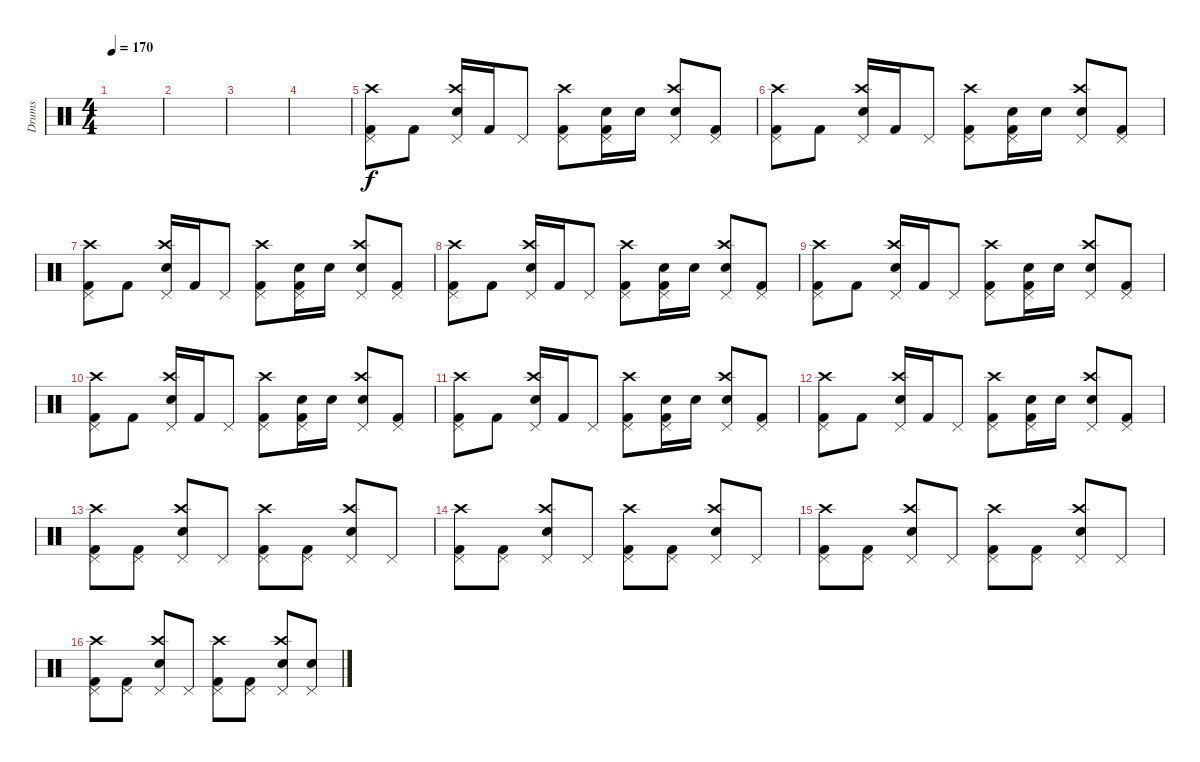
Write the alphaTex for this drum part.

\track ("Drums" "Drums") {instrument percussion}
\staff {score}
\articulation defaults
\ts (4 4)
\tempo 170
\clef neutral
\ks c
|
|
|
|
("Pedal Hi-Hat (hit)" "Kick (hit) 2" "Crash high (hit)").8 "Kick (hit) 2".8 ("Pedal Hi-Hat (hit)" "Electric Snare (hit)" "Crash high (hit)").16 "Kick (hit) 2".16 "Pedal Hi-Hat (hit)".8 ("Pedal Hi-Hat (hit)" "Kick (hit) 2" "Crash high (hit)").8 ("Pedal Hi-Hat (hit)" "Electric Snare (hit)" "Kick (hit) 2").16 "Electric Snare (hit)".16 ("Pedal Hi-Hat (hit)" "Electric Snare (hit)" "Crash high (hit)").8 ("Pedal Hi-Hat (hit)" "Kick (hit) 2").8 |
("Pedal Hi-Hat (hit)" "Kick (hit) 2" "Crash high (hit)").8 "Kick (hit) 2".8 ("Pedal Hi-Hat (hit)" "Electric Snare (hit)" "Crash high (hit)").16 "Kick (hit) 2".16 "Pedal Hi-Hat (hit)".8 ("Pedal Hi-Hat (hit)" "Kick (hit) 2" "Crash high (hit)").8 ("Pedal Hi-Hat (hit)" "Electric Snare (hit)" "Kick (hit) 2").16 "Electric Snare (hit)".16 ("Pedal Hi-Hat (hit)" "Electric Snare (hit)" "Crash high (hit)").8 ("Pedal Hi-Hat (hit)" "Kick (hit) 2").8 |
("Pedal Hi-Hat (hit)" "Kick (hit) 2" "Crash high (hit)").8 "Kick (hit) 2".8 ("Pedal Hi-Hat (hit)" "Electric Snare (hit)" "Crash high (hit)").16 "Kick (hit) 2".16 "Pedal Hi-Hat (hit)".8 ("Pedal Hi-Hat (hit)" "Kick (hit) 2" "Crash high (hit)").8 ("Pedal Hi-Hat (hit)" "Electric Snare (hit)" "Kick (hit) 2").16 "Electric Snare (hit)".16 ("Pedal Hi-Hat (hit)" "Electric Snare (hit)" "Crash high (hit)").8 ("Pedal Hi-Hat (hit)" "Kick (hit) 2").8 |
("Pedal Hi-Hat (hit)" "Kick (hit) 2" "Crash high (hit)").8 "Kick (hit) 2".8 ("Pedal Hi-Hat (hit)" "Electric Snare (hit)" "Crash high (hit)").16 "Kick (hit) 2".16 "Pedal Hi-Hat (hit)".8 ("Pedal Hi-Hat (hit)" "Kick (hit) 2" "Crash high (hit)").8 ("Pedal Hi-Hat (hit)" "Electric Snare (hit)" "Kick (hit) 2").16 "Electric Snare (hit)".16 ("Pedal Hi-Hat (hit)" "Electric Snare (hit)" "Crash high (hit)").8 ("Pedal Hi-Hat (hit)" "Kick (hit) 2").8 |
("Pedal Hi-Hat (hit)" "Kick (hit) 2" "Crash high (hit)").8 "Kick (hit) 2".8 ("Pedal Hi-Hat (hit)" "Electric Snare (hit)" "Crash high (hit)").16 "Kick (hit) 2".16 "Pedal Hi-Hat (hit)".8 ("Pedal Hi-Hat (hit)" "Kick (hit) 2" "Crash high (hit)").8 ("Pedal Hi-Hat (hit)" "Electric Snare (hit)" "Kick (hit) 2").16 "Electric Snare (hit)".16 ("Pedal Hi-Hat (hit)" "Electric Snare (hit)" "Crash high (hit)").8 ("Pedal Hi-Hat (hit)" "Kick (hit) 2").8 |
("Pedal Hi-Hat (hit)" "Kick (hit) 2" "Crash high (hit)").8 "Kick (hit) 2".8 ("Pedal Hi-Hat (hit)" "Electric Snare (hit)" "Crash high (hit)").16 "Kick (hit) 2".16 "Pedal Hi-Hat (hit)".8 ("Pedal Hi-Hat (hit)" "Kick (hit) 2" "Crash high (hit)").8 ("Pedal Hi-Hat (hit)" "Electric Snare (hit)" "Kick (hit) 2").16 "Electric Snare (hit)".16 ("Pedal Hi-Hat (hit)" "Electric Snare (hit)" "Crash high (hit)").8 ("Pedal Hi-Hat (hit)" "Kick (hit) 2").8 |
("Pedal Hi-Hat (hit)" "Kick (hit) 2" "Crash high (hit)").8 "Kick (hit) 2".8 ("Pedal Hi-Hat (hit)" "Electric Snare (hit)" "Crash high (hit)").16 "Kick (hit) 2".16 "Pedal Hi-Hat (hit)".8 ("Pedal Hi-Hat (hit)" "Kick (hit) 2" "Crash high (hit)").8 ("Pedal Hi-Hat (hit)" "Electric Snare (hit)" "Kick (hit) 2").16 "Electric Snare (hit)".16 ("Pedal Hi-Hat (hit)" "Electric Snare (hit)" "Crash high (hit)").8 ("Pedal Hi-Hat (hit)" "Kick (hit) 2").8 |
("Pedal Hi-Hat (hit)" "Kick (hit) 2" "Crash high (hit)").8 "Kick (hit) 2".8 ("Pedal Hi-Hat (hit)" "Electric Snare (hit)" "Crash high (hit)").16 "Kick (hit) 2".16 "Pedal Hi-Hat (hit)".8 ("Pedal Hi-Hat (hit)" "Kick (hit) 2" "Crash high (hit)").8 ("Pedal Hi-Hat (hit)" "Electric Snare (hit)" "Kick (hit) 2").16 "Electric Snare (hit)".16 ("Pedal Hi-Hat (hit)" "Electric Snare (hit)" "Crash high (hit)").8 ("Pedal Hi-Hat (hit)" "Kick (hit) 2").8 |
("Pedal Hi-Hat (hit)" "Kick (hit) 2" "Crash high (hit)").8 ("Pedal Hi-Hat (hit)" "Kick (hit) 2").8 ("Pedal Hi-Hat (hit)" "Electric Snare (hit)" "Crash high (hit)").8 "Pedal Hi-Hat (hit)".8 ("Pedal Hi-Hat (hit)" "Kick (hit) 2" "Crash high (hit)").8 ("Pedal Hi-Hat (hit)" "Kick (hit) 2").8 ("Pedal Hi-Hat (hit)" "Electric Snare (hit)" "Crash high (hit)").8 "Pedal Hi-Hat (hit)".8 |
("Pedal Hi-Hat (hit)" "Kick (hit) 2" "Crash high (hit)").8 ("Pedal Hi-Hat (hit)" "Kick (hit) 2").8 ("Pedal Hi-Hat (hit)" "Electric Snare (hit)" "Crash high (hit)").8 "Pedal Hi-Hat (hit)".8 ("Pedal Hi-Hat (hit)" "Kick (hit) 2" "Crash high (hit)").8 ("Pedal Hi-Hat (hit)" "Kick (hit) 2").8 ("Pedal Hi-Hat (hit)" "Electric Snare (hit)" "Crash high (hit)").8 "Pedal Hi-Hat (hit)".8 |
("Pedal Hi-Hat (hit)" "Kick (hit) 2" "Crash high (hit)").8 ("Pedal Hi-Hat (hit)" "Kick (hit) 2").8 ("Pedal Hi-Hat (hit)" "Electric Snare (hit)" "Crash high (hit)").8 "Pedal Hi-Hat (hit)".8 ("Pedal Hi-Hat (hit)" "Kick (hit) 2" "Crash high (hit)").8 ("Pedal Hi-Hat (hit)" "Kick (hit) 2").8 ("Pedal Hi-Hat (hit)" "Electric Snare (hit)" "Crash high (hit)").8 "Pedal Hi-Hat (hit)".8 |
("Pedal Hi-Hat (hit)" "Kick (hit) 2" "Crash high (hit)").8 ("Pedal Hi-Hat (hit)" "Kick (hit) 2").8 ("Pedal Hi-Hat (hit)" "Electric Snare (hit)" "Crash high (hit)").8 "Pedal Hi-Hat (hit)".8 ("Pedal Hi-Hat (hit)" "Kick (hit) 2" "Crash high (hit)").8 ("Pedal Hi-Hat (hit)" "Kick (hit) 2").8 ("Pedal Hi-Hat (hit)" "Electric Snare (hit)" "Crash high (hit)").8 ("Pedal Hi-Hat (hit)" "Electric Snare (hit)").8
